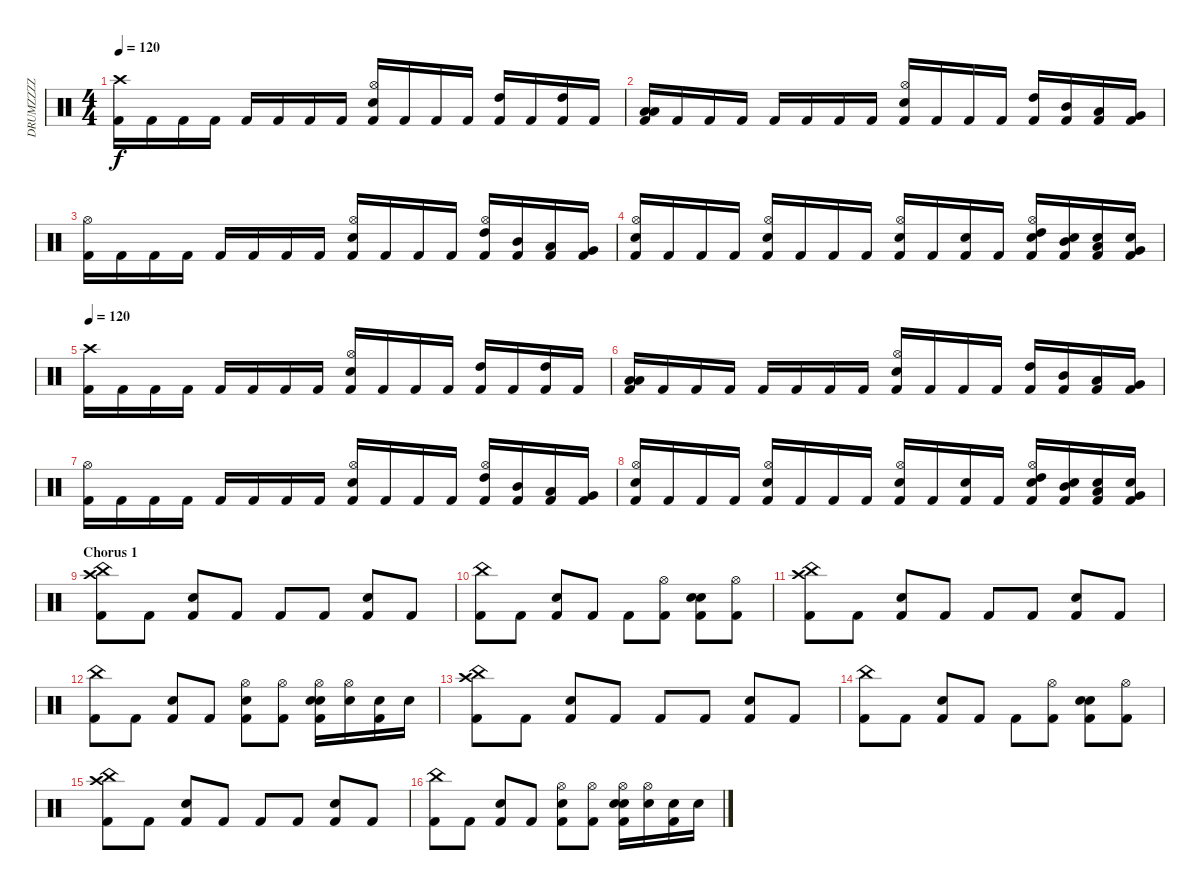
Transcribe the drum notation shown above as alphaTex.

\track ("DRUMZZZZ" "DRUMZZZZ") {instrument percussion}
\staff {score}
\articulation defaults
\ts (4 4)
\tempo 120
\clef neutral
\ks c
("Crash high (hit)" "Kick (hit) 2").16{dy f} "Kick (hit) 2".16 "Kick (hit) 2".16 "Kick (hit) 2".16 "Kick (hit) 2".16 "Kick (hit) 2".16 "Kick (hit) 2".16 "Kick (hit) 2".16 ("Hi-Hat (open)" "Kick (hit) 2" "Snare (hit) 2").16 "Kick (hit) 2".16 "Kick (hit) 2".16 "Kick (hit) 2".16 ("Kick (hit) 2" "High Tom (hit)").16 "Kick (hit) 2".16 ("Kick (hit) 2" "High Tom (hit)").16 "Kick (hit) 2".16 |
("Kick (hit) 2" "Low Tom (hit)" "Low Tom (hit)").16 "Kick (hit) 2".16 "Kick (hit) 2".16 "Kick (hit) 2".16 "Kick (hit) 2".16 "Kick (hit) 2".16 "Kick (hit) 2".16 "Kick (hit) 2".16 ("Hi-Hat (open)" "Kick (hit) 2" "Snare (hit) 2").16 "Kick (hit) 2".16 "Kick (hit) 2".16 "Kick (hit) 2".16 ("Kick (hit) 2" "High Tom (hit)").16 ("Kick (hit) 2" "Mid Tom (hit)").16 ("Kick (hit) 2" "Low Tom (hit)").16 ("Kick (hit) 2" "Very Low Tom (hit)").16 |
("Hi-Hat (open)" "Kick (hit) 2").16 "Kick (hit) 2".16 "Kick (hit) 2".16 "Kick (hit) 2".16 "Kick (hit) 2".16 "Kick (hit) 2".16 "Kick (hit) 2".16 "Kick (hit) 2".16 ("Hi-Hat (open)" "Kick (hit) 2" "Snare (hit) 2").16 "Kick (hit) 2".16 "Kick (hit) 2".16 "Kick (hit) 2".16 ("Hi-Hat (open)" "Kick (hit) 2" "High Tom (hit)").16 ("Kick (hit) 2" "Mid Tom (hit)").16 ("Kick (hit) 2" "Low Tom (hit)").16 ("Kick (hit) 2" "Very Low Tom (hit)").16 |
("Hi-Hat (open)" "Kick (hit) 2" "Electric Snare (hit)").16 "Kick (hit) 2".16 "Kick (hit) 2".16 "Kick (hit) 2".16 ("Hi-Hat (open)" "Kick (hit) 2" "Electric Snare (hit)").16 "Kick (hit) 2".16 "Kick (hit) 2".16 "Kick (hit) 2".16 ("Hi-Hat (open)" "Kick (hit) 2" "Electric Snare (hit)").16 "Kick (hit) 2".16 ("Kick (hit) 2" "Electric Snare (hit)").16 "Kick (hit) 2".16 ("Hi-Hat (open)" "Kick (hit) 2" "High Tom (hit)" "Electric Snare (hit)").16 ("Kick (hit) 2" "Mid Tom (hit)" "Electric Snare (hit)").16 ("Kick (hit) 2" "Low Tom (hit)" "Electric Snare (hit)").16 ("Kick (hit) 2" "Very Low Tom (hit)" "Electric Snare (hit)").16 |
\tempo 120
("Crash high (hit)" "Kick (hit) 2").16 "Kick (hit) 2".16 "Kick (hit) 2".16 "Kick (hit) 2".16 "Kick (hit) 2".16 "Kick (hit) 2".16 "Kick (hit) 2".16 "Kick (hit) 2".16 ("Hi-Hat (open)" "Kick (hit) 2" "Snare (hit) 2").16 "Kick (hit) 2".16 "Kick (hit) 2".16 "Kick (hit) 2".16 ("Kick (hit) 2" "High Tom (hit)").16 "Kick (hit) 2".16 ("Kick (hit) 2" "High Tom (hit)").16 "Kick (hit) 2".16 |
("Kick (hit) 2" "Low Tom (hit)" "Low Tom (hit)").16 "Kick (hit) 2".16 "Kick (hit) 2".16 "Kick (hit) 2".16 "Kick (hit) 2".16 "Kick (hit) 2".16 "Kick (hit) 2".16 "Kick (hit) 2".16 ("Hi-Hat (open)" "Kick (hit) 2" "Snare (hit) 2").16 "Kick (hit) 2".16 "Kick (hit) 2".16 "Kick (hit) 2".16 ("Kick (hit) 2" "High Tom (hit)").16 ("Kick (hit) 2" "Mid Tom (hit)").16 ("Kick (hit) 2" "Low Tom (hit)").16 ("Kick (hit) 2" "Very Low Tom (hit)").16 |
("Hi-Hat (open)" "Kick (hit) 2").16 "Kick (hit) 2".16 "Kick (hit) 2".16 "Kick (hit) 2".16 "Kick (hit) 2".16 "Kick (hit) 2".16 "Kick (hit) 2".16 "Kick (hit) 2".16 ("Hi-Hat (open)" "Kick (hit) 2" "Snare (hit) 2").16 "Kick (hit) 2".16 "Kick (hit) 2".16 "Kick (hit) 2".16 ("Hi-Hat (open)" "Kick (hit) 2" "High Tom (hit)").16 ("Kick (hit) 2" "Mid Tom (hit)").16 ("Kick (hit) 2" "Low Tom (hit)").16 ("Kick (hit) 2" "Very Low Tom (hit)").16 |
("Hi-Hat (open)" "Kick (hit) 2" "Electric Snare (hit)").16 "Kick (hit) 2".16 "Kick (hit) 2".16 "Kick (hit) 2".16 ("Hi-Hat (open)" "Kick (hit) 2" "Electric Snare (hit)").16 "Kick (hit) 2".16 "Kick (hit) 2".16 "Kick (hit) 2".16 ("Hi-Hat (open)" "Kick (hit) 2" "Electric Snare (hit)").16 "Kick (hit) 2".16 ("Kick (hit) 2" "Electric Snare (hit)").16 "Kick (hit) 2".16 ("Hi-Hat (open)" "Kick (hit) 2" "High Tom (hit)" "Electric Snare (hit)").16 ("Kick (hit) 2" "Mid Tom (hit)" "Electric Snare (hit)").16 ("Kick (hit) 2" "Low Tom (hit)" "Electric Snare (hit)").16 ("Kick (hit) 2" "Very Low Tom (hit)" "Electric Snare (hit)").16 |
\section ("" "Chorus 1")
("Crash high (hit)" "China (hit)" "Kick (hit) 2").8 "Kick (hit) 2".8 ("Kick (hit) 2" "Snare (hit) 2").8 "Kick (hit) 2".8 "Kick (hit) 2".8 "Kick (hit) 2".8 ("Kick (hit) 2" "Snare (hit) 2").8 "Kick (hit) 2".8 |
("China (hit)" "Kick (hit) 2").8 "Kick (hit) 2".8 ("Kick (hit) 2" "Snare (hit) 2").8 "Kick (hit) 2".8 "Kick (hit) 2".8 ("Hi-Hat (open)" "Kick (hit) 2").8 ("Kick (hit) 2" "Electric Snare (hit)" "Snare (hit) 2").8 ("Hi-Hat (open)" "Kick (hit) 2").8 |
("Crash high (hit)" "China (hit)" "Kick (hit) 2").8 "Kick (hit) 2".8 ("Kick (hit) 2" "Snare (hit) 2").8 "Kick (hit) 2".8 "Kick (hit) 2".8 "Kick (hit) 2".8 ("Kick (hit) 2" "Snare (hit) 2").8 "Kick (hit) 2".8 |
("China (hit)" "Kick (hit) 2").8 "Kick (hit) 2".8 ("Kick (hit) 2" "Snare (hit) 2").8 "Kick (hit) 2".8 ("Hi-Hat (open)" "Kick (hit) 2" "Electric Snare (hit)").8 ("Hi-Hat (open)" "Kick (hit) 2").8 ("Hi-Hat (open)" "Kick (hit) 2" "Electric Snare (hit)" "Snare (hit) 2").16 ("Hi-Hat (open)" "Electric Snare (hit)").16 ("Kick (hit) 2" "Electric Snare (hit)").16 "Electric Snare (hit)".16 |
("Crash high (hit)" "China (hit)" "Kick (hit) 2").8 "Kick (hit) 2".8 ("Kick (hit) 2" "Snare (hit) 2").8 "Kick (hit) 2".8 "Kick (hit) 2".8 "Kick (hit) 2".8 ("Kick (hit) 2" "Snare (hit) 2").8 "Kick (hit) 2".8 |
("China (hit)" "Kick (hit) 2").8 "Kick (hit) 2".8 ("Kick (hit) 2" "Snare (hit) 2").8 "Kick (hit) 2".8 "Kick (hit) 2".8 ("Hi-Hat (open)" "Kick (hit) 2").8 ("Kick (hit) 2" "Electric Snare (hit)" "Snare (hit) 2").8 ("Hi-Hat (open)" "Kick (hit) 2").8 |
("Crash high (hit)" "China (hit)" "Kick (hit) 2").8 "Kick (hit) 2".8 ("Kick (hit) 2" "Snare (hit) 2").8 "Kick (hit) 2".8 "Kick (hit) 2".8 "Kick (hit) 2".8 ("Kick (hit) 2" "Snare (hit) 2").8 "Kick (hit) 2".8 |
("China (hit)" "Kick (hit) 2").8 "Kick (hit) 2".8 ("Kick (hit) 2" "Snare (hit) 2").8 "Kick (hit) 2".8 ("Hi-Hat (open)" "Kick (hit) 2" "Electric Snare (hit)").8 ("Hi-Hat (open)" "Kick (hit) 2").8 ("Hi-Hat (open)" "Kick (hit) 2" "Electric Snare (hit)" "Snare (hit) 2").16 ("Hi-Hat (open)" "Electric Snare (hit)").16 ("Kick (hit) 2" "Electric Snare (hit)").16 "Electric Snare (hit)".16
